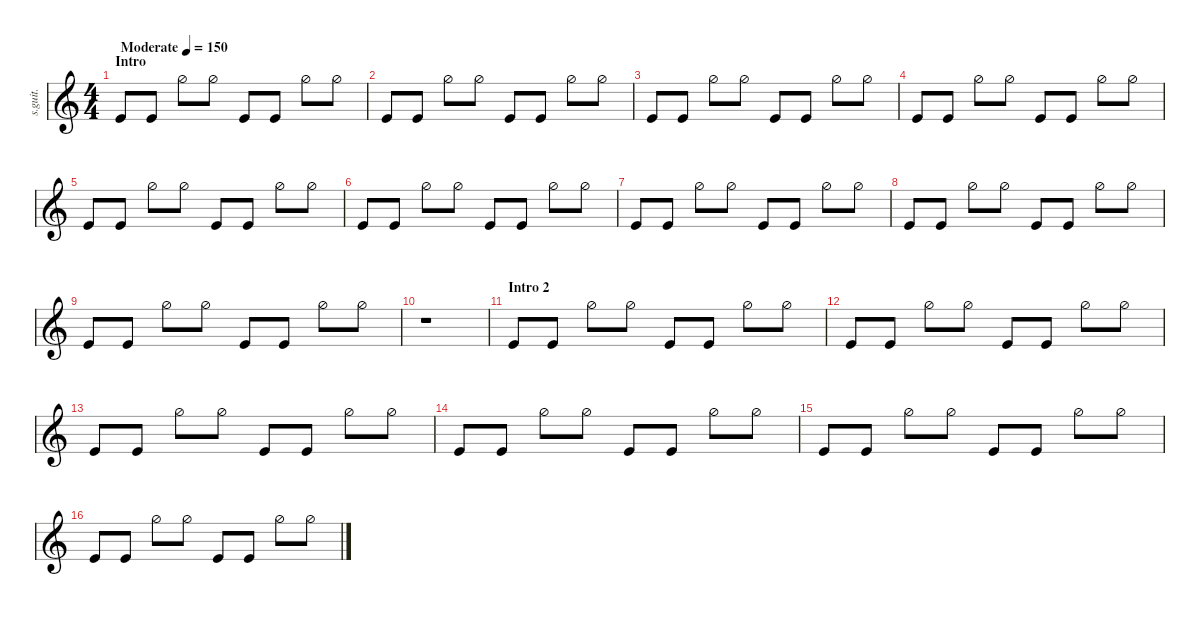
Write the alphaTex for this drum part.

\defaultSystemsLayout 4
\hideDynamics
\bracketExtendMode nobrackets
\track ("Synth Drums 1" "s.guit.") {instrument percussion}
\staff {score}
\articulation defaults
\ts (4 4)
\beaming (8 2 2 2 2)
\section ("" "Intro")
\tempo (150 "Moderate")
\clef g2
\ks c "Kick (hit)".8{lyrics (0 "") lyrics (1 "") lyrics (2 "") lyrics (3 "") lyrics (4 "") dy f} "Kick (hit)".8{lyrics (0 "") lyrics (1 "") lyrics (2 "") lyrics (3 "") lyrics (4 "")} "Hi-Hat (half)".8{lyrics (0 "") lyrics (1 "") lyrics (2 "") lyrics (3 "") lyrics (4 "")} "Hi-Hat (half)".8{lyrics (0 "") lyrics (1 "") lyrics (2 "") lyrics (3 "") lyrics (4 "")} "Kick (hit)".8{lyrics (0 "") lyrics (1 "") lyrics (2 "") lyrics (3 "") lyrics (4 "")} "Kick (hit)".8{lyrics (0 "") lyrics (1 "") lyrics (2 "") lyrics (3 "") lyrics (4 "")} "Hi-Hat (half)".8{lyrics (0 "") lyrics (1 "") lyrics (2 "") lyrics (3 "") lyrics (4 "")} "Hi-Hat (half)".8{lyrics (0 "") lyrics (1 "") lyrics (2 "") lyrics (3 "") lyrics (4 "")}
|
"Kick (hit)".8{lyrics (0 "") lyrics (1 "") lyrics (2 "") lyrics (3 "") lyrics (4 "")} "Kick (hit)".8{lyrics (0 "") lyrics (1 "") lyrics (2 "") lyrics (3 "") lyrics (4 "")} "Hi-Hat (half)".8{lyrics (0 "") lyrics (1 "") lyrics (2 "") lyrics (3 "") lyrics (4 "")} "Hi-Hat (half)".8{lyrics (0 "") lyrics (1 "") lyrics (2 "") lyrics (3 "") lyrics (4 "")} "Kick (hit)".8{lyrics (0 "") lyrics (1 "") lyrics (2 "") lyrics (3 "") lyrics (4 "")} "Kick (hit)".8{lyrics (0 "") lyrics (1 "") lyrics (2 "") lyrics (3 "") lyrics (4 "")} "Hi-Hat (half)".8{lyrics (0 "") lyrics (1 "") lyrics (2 "") lyrics (3 "") lyrics (4 "")} "Hi-Hat (half)".8{lyrics (0 "") lyrics (1 "") lyrics (2 "") lyrics (3 "") lyrics (4 "")} |
"Kick (hit)".8{lyrics (0 "") lyrics (1 "") lyrics (2 "") lyrics (3 "") lyrics (4 "")} "Kick (hit)".8{lyrics (0 "") lyrics (1 "") lyrics (2 "") lyrics (3 "") lyrics (4 "")} "Hi-Hat (half)".8{lyrics (0 "") lyrics (1 "") lyrics (2 "") lyrics (3 "") lyrics (4 "")} "Hi-Hat (half)".8{lyrics (0 "") lyrics (1 "") lyrics (2 "") lyrics (3 "") lyrics (4 "")} "Kick (hit)".8{lyrics (0 "") lyrics (1 "") lyrics (2 "") lyrics (3 "") lyrics (4 "")} "Kick (hit)".8{lyrics (0 "") lyrics (1 "") lyrics (2 "") lyrics (3 "") lyrics (4 "")} "Hi-Hat (half)".8{lyrics (0 "") lyrics (1 "") lyrics (2 "") lyrics (3 "") lyrics (4 "")} "Hi-Hat (half)".8{lyrics (0 "") lyrics (1 "") lyrics (2 "") lyrics (3 "") lyrics (4 "")} |
"Kick (hit)".8{lyrics (0 "") lyrics (1 "") lyrics (2 "") lyrics (3 "") lyrics (4 "")} "Kick (hit)".8{lyrics (0 "") lyrics (1 "") lyrics (2 "") lyrics (3 "") lyrics (4 "")} "Hi-Hat (half)".8{lyrics (0 "") lyrics (1 "") lyrics (2 "") lyrics (3 "") lyrics (4 "")} "Hi-Hat (half)".8{lyrics (0 "") lyrics (1 "") lyrics (2 "") lyrics (3 "") lyrics (4 "")} "Kick (hit)".8{lyrics (0 "") lyrics (1 "") lyrics (2 "") lyrics (3 "") lyrics (4 "")} "Kick (hit)".8{lyrics (0 "") lyrics (1 "") lyrics (2 "") lyrics (3 "") lyrics (4 "")} "Hi-Hat (half)".8{lyrics (0 "") lyrics (1 "") lyrics (2 "") lyrics (3 "") lyrics (4 "")} "Hi-Hat (half)".8{lyrics (0 "") lyrics (1 "") lyrics (2 "") lyrics (3 "") lyrics (4 "")} |
"Kick (hit)".8{lyrics (0 "") lyrics (1 "") lyrics (2 "") lyrics (3 "") lyrics (4 "")} "Kick (hit)".8{lyrics (0 "") lyrics (1 "") lyrics (2 "") lyrics (3 "") lyrics (4 "")} "Hi-Hat (half)".8{lyrics (0 "") lyrics (1 "") lyrics (2 "") lyrics (3 "") lyrics (4 "")} "Hi-Hat (half)".8{lyrics (0 "") lyrics (1 "") lyrics (2 "") lyrics (3 "") lyrics (4 "")} "Kick (hit)".8{lyrics (0 "") lyrics (1 "") lyrics (2 "") lyrics (3 "") lyrics (4 "")} "Kick (hit)".8{lyrics (0 "") lyrics (1 "") lyrics (2 "") lyrics (3 "") lyrics (4 "")} "Hi-Hat (half)".8{lyrics (0 "") lyrics (1 "") lyrics (2 "") lyrics (3 "") lyrics (4 "")} "Hi-Hat (half)".8{lyrics (0 "") lyrics (1 "") lyrics (2 "") lyrics (3 "") lyrics (4 "")} |
"Kick (hit)".8{lyrics (0 "") lyrics (1 "") lyrics (2 "") lyrics (3 "") lyrics (4 "")} "Kick (hit)".8{lyrics (0 "") lyrics (1 "") lyrics (2 "") lyrics (3 "") lyrics (4 "")} "Hi-Hat (half)".8{lyrics (0 "") lyrics (1 "") lyrics (2 "") lyrics (3 "") lyrics (4 "")} "Hi-Hat (half)".8{lyrics (0 "") lyrics (1 "") lyrics (2 "") lyrics (3 "") lyrics (4 "")} "Kick (hit)".8{lyrics (0 "") lyrics (1 "") lyrics (2 "") lyrics (3 "") lyrics (4 "")} "Kick (hit)".8{lyrics (0 "") lyrics (1 "") lyrics (2 "") lyrics (3 "") lyrics (4 "")} "Hi-Hat (half)".8{lyrics (0 "") lyrics (1 "") lyrics (2 "") lyrics (3 "") lyrics (4 "")} "Hi-Hat (half)".8{lyrics (0 "") lyrics (1 "") lyrics (2 "") lyrics (3 "") lyrics (4 "")} |
"Kick (hit)".8{lyrics (0 "") lyrics (1 "") lyrics (2 "") lyrics (3 "") lyrics (4 "")} "Kick (hit)".8{lyrics (0 "") lyrics (1 "") lyrics (2 "") lyrics (3 "") lyrics (4 "")} "Hi-Hat (half)".8{lyrics (0 "") lyrics (1 "") lyrics (2 "") lyrics (3 "") lyrics (4 "")} "Hi-Hat (half)".8{lyrics (0 "") lyrics (1 "") lyrics (2 "") lyrics (3 "") lyrics (4 "")} "Kick (hit)".8{lyrics (0 "") lyrics (1 "") lyrics (2 "") lyrics (3 "") lyrics (4 "")} "Kick (hit)".8{lyrics (0 "") lyrics (1 "") lyrics (2 "") lyrics (3 "") lyrics (4 "")} "Hi-Hat (half)".8{lyrics (0 "") lyrics (1 "") lyrics (2 "") lyrics (3 "") lyrics (4 "")} "Hi-Hat (half)".8{lyrics (0 "") lyrics (1 "") lyrics (2 "") lyrics (3 "") lyrics (4 "")} |
"Kick (hit)".8{lyrics (0 "") lyrics (1 "") lyrics (2 "") lyrics (3 "") lyrics (4 "")} "Kick (hit)".8{lyrics (0 "") lyrics (1 "") lyrics (2 "") lyrics (3 "") lyrics (4 "")} "Hi-Hat (half)".8{lyrics (0 "") lyrics (1 "") lyrics (2 "") lyrics (3 "") lyrics (4 "")} "Hi-Hat (half)".8{lyrics (0 "") lyrics (1 "") lyrics (2 "") lyrics (3 "") lyrics (4 "")} "Kick (hit)".8{lyrics (0 "") lyrics (1 "") lyrics (2 "") lyrics (3 "") lyrics (4 "")} "Kick (hit)".8{lyrics (0 "") lyrics (1 "") lyrics (2 "") lyrics (3 "") lyrics (4 "")} "Hi-Hat (half)".8{lyrics (0 "") lyrics (1 "") lyrics (2 "") lyrics (3 "") lyrics (4 "")} "Hi-Hat (half)".8{lyrics (0 "") lyrics (1 "") lyrics (2 "") lyrics (3 "") lyrics (4 "")} |
"Kick (hit)".8{lyrics (0 "") lyrics (1 "") lyrics (2 "") lyrics (3 "") lyrics (4 "")} "Kick (hit)".8{lyrics (0 "") lyrics (1 "") lyrics (2 "") lyrics (3 "") lyrics (4 "")} "Hi-Hat (half)".8{lyrics (0 "") lyrics (1 "") lyrics (2 "") lyrics (3 "") lyrics (4 "")} "Hi-Hat (half)".8{lyrics (0 "") lyrics (1 "") lyrics (2 "") lyrics (3 "") lyrics (4 "")} "Kick (hit)".8{lyrics (0 "") lyrics (1 "") lyrics (2 "") lyrics (3 "") lyrics (4 "")} "Kick (hit)".8{lyrics (0 "") lyrics (1 "") lyrics (2 "") lyrics (3 "") lyrics (4 "")} "Hi-Hat (half)".8{lyrics (0 "") lyrics (1 "") lyrics (2 "") lyrics (3 "") lyrics (4 "")} "Hi-Hat (half)".8{lyrics (0 "") lyrics (1 "") lyrics (2 "") lyrics (3 "") lyrics (4 "")} |
r.1 |
\section ("" "Intro 2")
"Kick (hit)".8{lyrics (0 "") lyrics (1 "") lyrics (2 "") lyrics (3 "") lyrics (4 "")} "Kick (hit)".8{lyrics (0 "") lyrics (1 "") lyrics (2 "") lyrics (3 "") lyrics (4 "")} "Hi-Hat (half)".8{lyrics (0 "") lyrics (1 "") lyrics (2 "") lyrics (3 "") lyrics (4 "")} "Hi-Hat (half)".8{lyrics (0 "") lyrics (1 "") lyrics (2 "") lyrics (3 "") lyrics (4 "")} "Kick (hit)".8{lyrics (0 "") lyrics (1 "") lyrics (2 "") lyrics (3 "") lyrics (4 "")} "Kick (hit)".8{lyrics (0 "") lyrics (1 "") lyrics (2 "") lyrics (3 "") lyrics (4 "")} "Hi-Hat (half)".8{lyrics (0 "") lyrics (1 "") lyrics (2 "") lyrics (3 "") lyrics (4 "")} "Hi-Hat (half)".8{lyrics (0 "") lyrics (1 "") lyrics (2 "") lyrics (3 "") lyrics (4 "")} |
"Kick (hit)".8{lyrics (0 "") lyrics (1 "") lyrics (2 "") lyrics (3 "") lyrics (4 "")} "Kick (hit)".8{lyrics (0 "") lyrics (1 "") lyrics (2 "") lyrics (3 "") lyrics (4 "")} "Hi-Hat (half)".8{lyrics (0 "") lyrics (1 "") lyrics (2 "") lyrics (3 "") lyrics (4 "")} "Hi-Hat (half)".8{lyrics (0 "") lyrics (1 "") lyrics (2 "") lyrics (3 "") lyrics (4 "")} "Kick (hit)".8{lyrics (0 "") lyrics (1 "") lyrics (2 "") lyrics (3 "") lyrics (4 "")} "Kick (hit)".8{lyrics (0 "") lyrics (1 "") lyrics (2 "") lyrics (3 "") lyrics (4 "")} "Hi-Hat (half)".8{lyrics (0 "") lyrics (1 "") lyrics (2 "") lyrics (3 "") lyrics (4 "")} "Hi-Hat (half)".8{lyrics (0 "") lyrics (1 "") lyrics (2 "") lyrics (3 "") lyrics (4 "")} |
"Kick (hit)".8{lyrics (0 "") lyrics (1 "") lyrics (2 "") lyrics (3 "") lyrics (4 "")} "Kick (hit)".8{lyrics (0 "") lyrics (1 "") lyrics (2 "") lyrics (3 "") lyrics (4 "")} "Hi-Hat (half)".8{lyrics (0 "") lyrics (1 "") lyrics (2 "") lyrics (3 "") lyrics (4 "")} "Hi-Hat (half)".8{lyrics (0 "") lyrics (1 "") lyrics (2 "") lyrics (3 "") lyrics (4 "")} "Kick (hit)".8{lyrics (0 "") lyrics (1 "") lyrics (2 "") lyrics (3 "") lyrics (4 "")} "Kick (hit)".8{lyrics (0 "") lyrics (1 "") lyrics (2 "") lyrics (3 "") lyrics (4 "")} "Hi-Hat (half)".8{lyrics (0 "") lyrics (1 "") lyrics (2 "") lyrics (3 "") lyrics (4 "")} "Hi-Hat (half)".8{lyrics (0 "") lyrics (1 "") lyrics (2 "") lyrics (3 "") lyrics (4 "")} |
"Kick (hit)".8{lyrics (0 "") lyrics (1 "") lyrics (2 "") lyrics (3 "") lyrics (4 "")} "Kick (hit)".8{lyrics (0 "") lyrics (1 "") lyrics (2 "") lyrics (3 "") lyrics (4 "")} "Hi-Hat (half)".8{lyrics (0 "") lyrics (1 "") lyrics (2 "") lyrics (3 "") lyrics (4 "")} "Hi-Hat (half)".8{lyrics (0 "") lyrics (1 "") lyrics (2 "") lyrics (3 "") lyrics (4 "")} "Kick (hit)".8{lyrics (0 "") lyrics (1 "") lyrics (2 "") lyrics (3 "") lyrics (4 "")} "Kick (hit)".8{lyrics (0 "") lyrics (1 "") lyrics (2 "") lyrics (3 "") lyrics (4 "")} "Hi-Hat (half)".8{lyrics (0 "") lyrics (1 "") lyrics (2 "") lyrics (3 "") lyrics (4 "")} "Hi-Hat (half)".8{lyrics (0 "") lyrics (1 "") lyrics (2 "") lyrics (3 "") lyrics (4 "")} |
"Kick (hit)".8{lyrics (0 "") lyrics (1 "") lyrics (2 "") lyrics (3 "") lyrics (4 "")} "Kick (hit)".8{lyrics (0 "") lyrics (1 "") lyrics (2 "") lyrics (3 "") lyrics (4 "")} "Hi-Hat (half)".8{lyrics (0 "") lyrics (1 "") lyrics (2 "") lyrics (3 "") lyrics (4 "")} "Hi-Hat (half)".8{lyrics (0 "") lyrics (1 "") lyrics (2 "") lyrics (3 "") lyrics (4 "")} "Kick (hit)".8{lyrics (0 "") lyrics (1 "") lyrics (2 "") lyrics (3 "") lyrics (4 "")} "Kick (hit)".8{lyrics (0 "") lyrics (1 "") lyrics (2 "") lyrics (3 "") lyrics (4 "")} "Hi-Hat (half)".8{lyrics (0 "") lyrics (1 "") lyrics (2 "") lyrics (3 "") lyrics (4 "")} "Hi-Hat (half)".8{lyrics (0 "") lyrics (1 "") lyrics (2 "") lyrics (3 "") lyrics (4 "")} |
"Kick (hit)".8{lyrics (0 "") lyrics (1 "") lyrics (2 "") lyrics (3 "") lyrics (4 "")} "Kick (hit)".8{lyrics (0 "") lyrics (1 "") lyrics (2 "") lyrics (3 "") lyrics (4 "")} "Hi-Hat (half)".8{lyrics (0 "") lyrics (1 "") lyrics (2 "") lyrics (3 "") lyrics (4 "")} "Hi-Hat (half)".8{lyrics (0 "") lyrics (1 "") lyrics (2 "") lyrics (3 "") lyrics (4 "")} "Kick (hit)".8{lyrics (0 "") lyrics (1 "") lyrics (2 "") lyrics (3 "") lyrics (4 "")} "Kick (hit)".8{lyrics (0 "") lyrics (1 "") lyrics (2 "") lyrics (3 "") lyrics (4 "")} "Hi-Hat (half)".8{lyrics (0 "") lyrics (1 "") lyrics (2 "") lyrics (3 "") lyrics (4 "")} "Hi-Hat (half)".8{lyrics (0 "") lyrics (1 "") lyrics (2 "") lyrics (3 "") lyrics (4 "")}
